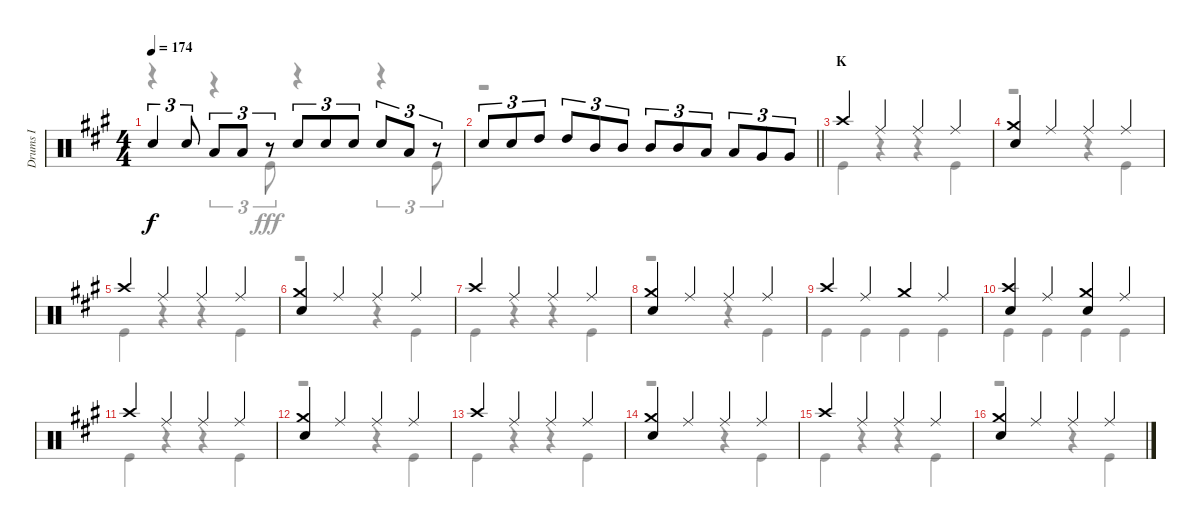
\track ("Drums I" "Drums I") {instrument percussion}
\staff {score}
\articulation defaults
\voice
\ts (4 4)
\tempo 174
\clef neutral
\ks a "Snare (hit) 2".4{tu (3 2) dy f} "Snare (hit) 2".8{tu (3 2)} "Low Tom (hit)".8{tu (3 2)} "Low Tom (hit)".8{tu (3 2)}
r.8{tu (3 2)} "Snare (hit) 2".8{tu (3 2)} "Snare (hit) 2".8{tu (3 2)} "Snare (hit) 2".8{tu (3 2)} "Snare (hit) 2".8{tu (3 2)} "Low Tom (hit)".8{tu (3 2)} r.8{tu (3 2)} |
\barLineRight lightlight "Snare (hit) 2".8{tu (3 2)} "Snare (hit) 2".8{tu (3 2)} "High Tom (hit)".8{tu (3 2)} "High Tom (hit)".8{tu (3 2)} "Mid Tom (hit)".8{tu (3 2)} "Mid Tom (hit)".8{tu (3 2)} "Mid Tom (hit)".8{tu (3 2)} "Mid Tom (hit)".8{tu (3 2)} "Low Tom (hit)".8{tu (3 2)} "Low Tom (hit)".8{tu (3 2)} "Very Low Tom (hit)".8{tu (3 2)} "Very Low Tom (hit)".8{tu (3 2)}
|
\section ("" "K")
"Crash high (hit)".4 "Ride (middle)".4 "Ride (middle)".4 "Ride (middle)".4 |
("Crash medium (hit)" "Snare (hit) 2").4 "Ride (middle)".4 "Ride (middle)".4 "Ride (middle)".4 |
"Crash high (hit)".4 "Ride (middle)".4 "Ride (middle)".4 "Ride (middle)".4 |
("Crash medium (hit)" "Snare (hit) 2").4 "Ride (middle)".4 "Ride (middle)".4 "Ride (middle)".4 |
"Crash high (hit)".4 "Ride (middle)".4 "Ride (middle)".4 "Ride (middle)".4 |
("Crash medium (hit)" "Snare (hit) 2").4 "Ride (middle)".4 "Ride (middle)".4 "Ride (middle)".4 |
"Crash high (hit)".4 "Ride (middle)".4 "Crash medium (hit)".4 "Ride (middle)".4 |
("Crash high (hit)" "Snare (hit) 2").4 "Ride (middle)".4 ("Crash medium (hit)" "Snare (hit) 2").4 "Ride (middle)".4 |
"Crash high (hit)".4 "Ride (middle)".4 "Ride (middle)".4 "Ride (middle)".4 |
("Crash medium (hit)" "Snare (hit) 2").4 "Ride (middle)".4 "Ride (middle)".4 "Ride (middle)".4 |
"Crash high (hit)".4 "Ride (middle)".4 "Ride (middle)".4 "Ride (middle)".4 |
("Crash medium (hit)" "Snare (hit) 2").4 "Ride (middle)".4 "Ride (middle)".4 "Ride (middle)".4 |
"Crash high (hit)".4 "Ride (middle)".4 "Ride (middle)".4 "Ride (middle)".4 |
("Crash medium (hit)" "Snare (hit) 2").4 "Ride (middle)".4 "Ride (middle)".4 "Ride (middle)".4
\voice
\clef neutral
\ottava regular
\simile none
\ks a
r.4{dy fff} r.4{tu (3 2)} "Kick (hit)".8{tu (3 2)} r.4 r.4{tu (3 2)} "Kick (hit)".8{tu (3 2)} |
\barLineRight lightlight
r.1 |
"Kick (hit)".4 r.4 r.4 "Kick (hit)".4 |
r.2 r.4 "Kick (hit)".4 |
"Kick (hit)".4 r.4 r.4 "Kick (hit)".4 |
r.2 r.4 "Kick (hit)".4 |
"Kick (hit)".4 r.4 r.4 "Kick (hit)".4 |
r.2 r.4 "Kick (hit)".4 |
"Kick (hit)".4 "Kick (hit)".4 "Kick (hit)".4 "Kick (hit)".4 |
"Kick (hit)".4 "Kick (hit)".4 "Kick (hit)".4 "Kick (hit)".4 |
"Kick (hit)".4 r.4 r.4 "Kick (hit)".4 |
r.2 r.4 "Kick (hit)".4 |
"Kick (hit)".4 r.4 r.4 "Kick (hit)".4 |
r.2 r.4 "Kick (hit)".4 |
"Kick (hit)".4 r.4 r.4 "Kick (hit)".4 |
r.2 r.4 "Kick (hit)".4
